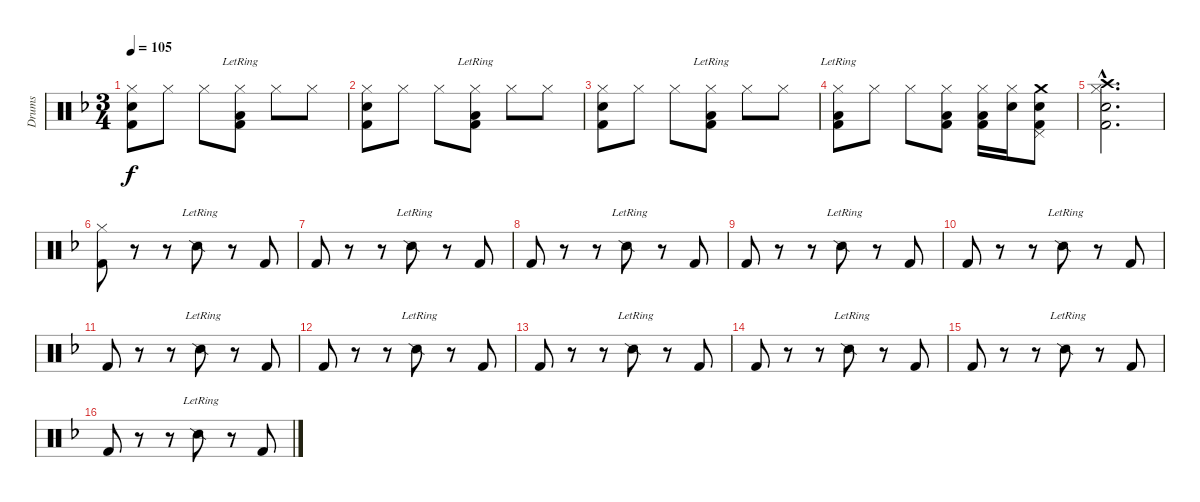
\track ("Drums" "Drums") {instrument percussion}
\staff {score}
\articulation defaults
\ts (3 4)
\tempo 105
\clef neutral
\ks f
("Hi-Hat (closed)" "Snare (hit) 2" "Kick (hit) 2").8{dy f} "Hi-Hat (closed)".8 "Hi-Hat (closed)".8 ("Hi-Hat (closed)" "Low Floor Tom (hit)"{lr} "Kick (hit) 2"{lr}).8 "Hi-Hat (closed)".8 "Hi-Hat (closed)".8 |
("Hi-Hat (closed)" "Snare (hit) 2" "Kick (hit) 2").8 "Hi-Hat (closed)".8 "Hi-Hat (closed)".8 ("Hi-Hat (closed)" "Low Floor Tom (hit)"{lr} "Kick (hit) 2"{lr}).8 "Hi-Hat (closed)".8 "Hi-Hat (closed)".8 |
("Hi-Hat (closed)" "Snare (hit) 2" "Kick (hit) 2").8 "Hi-Hat (closed)".8 "Hi-Hat (closed)".8 ("Hi-Hat (closed)" "Low Floor Tom (hit)"{lr} "Kick (hit) 2"{lr}).8 "Hi-Hat (closed)".8 "Hi-Hat (closed)".8 |
("Hi-Hat (closed)" "Low Floor Tom (hit)"{lr} "Kick (hit) 2"{lr}).8 "Hi-Hat (closed)".8 "Hi-Hat (closed)".8 ("Hi-Hat (closed)" "Low Floor Tom (hit)" "Kick (hit) 2").8 ("Hi-Hat (closed)" "Low Floor Tom (hit)" "Kick (hit) 2").16 ("Hi-Hat (closed)" "Electric Snare (hit)").16 ("Pedal Hi-Hat (hit)" "Crash medium (hit)" "Electric Snare (hit)" "Kick (hit) 2").8 |
("Hi-Hat (closed)"{hac} "Crash high (hit)"{hac} "Snare (hit) 2"{hac} "Kick (hit) 2"{hac}).2{d} |
("Hi-Hat (closed)" "Kick (hit) 2").8 r.8 r.8 "Snare (side stick) 2"{lr}.8 r.8 "Kick (hit) 2".8 |
"Kick (hit) 2".8 r.8 r.8 "Snare (side stick) 2"{lr}.8 r.8 "Kick (hit) 2".8 |
"Kick (hit) 2".8 r.8 r.8 "Snare (side stick) 2"{lr}.8 r.8 "Kick (hit) 2".8 |
"Kick (hit) 2".8 r.8 r.8 "Snare (side stick) 2"{lr}.8 r.8 "Kick (hit) 2".8 |
"Kick (hit) 2".8 r.8 r.8 "Snare (side stick) 2"{lr}.8 r.8 "Kick (hit) 2".8 |
"Kick (hit) 2".8 r.8 r.8 "Snare (side stick) 2"{lr}.8 r.8 "Kick (hit) 2".8 |
"Kick (hit) 2".8 r.8 r.8 "Snare (side stick) 2"{lr}.8 r.8 "Kick (hit) 2".8 |
"Kick (hit) 2".8 r.8 r.8 "Snare (side stick) 2"{lr}.8 r.8 "Kick (hit) 2".8 |
"Kick (hit) 2".8 r.8 r.8 "Snare (side stick) 2"{lr}.8 r.8 "Kick (hit) 2".8 |
"Kick (hit) 2".8 r.8 r.8 "Snare (side stick) 2"{lr}.8 r.8 "Kick (hit) 2".8 |
"Kick (hit) 2".8 r.8 r.8 "Snare (side stick) 2"{lr}.8 r.8 "Kick (hit) 2".8
